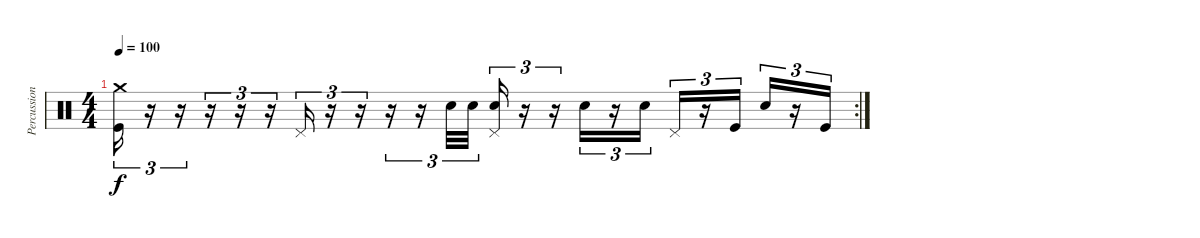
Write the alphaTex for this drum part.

\track ("Percussion" "Percussion") {instrument percussion}
\staff {score}
\articulation defaults
\rc 2
\ts (4 4)
\tempo 100
\clef neutral
\ks c
("Crash medium (hit)" "Kick (hit)").16{tu (3 2) dy f} r.16{tu (3 2)} r.16{tu (3 2)} r.16{tu (3 2)} r.16{tu (3 2)} r.16{tu (3 2)} "Pedal Hi-Hat (hit)".16{tu (3 2)} r.16{tu (3 2)} r.16{tu (3 2)} r.16{tu (3 2)} r.16{tu (3 2)} "Electric Snare (hit)".32{tu (3 2)} "Electric Snare (hit)".32{tu (3 2)} ("Pedal Hi-Hat (hit)" "Electric Snare (hit)").16{tu (3 2)} r.16{tu (3 2)} r.16{tu (3 2)} "Electric Snare (hit)".16{tu (3 2)} r.16{tu (3 2)} "Electric Snare (hit)".16{tu (3 2)} "Pedal Hi-Hat (hit)".16{tu (3 2)} r.16{tu (3 2)} "Kick (hit)".16{tu (3 2)} "Electric Snare (hit)".16{tu (3 2)} r.16{tu (3 2)} "Kick (hit)".16{tu (3 2)}
